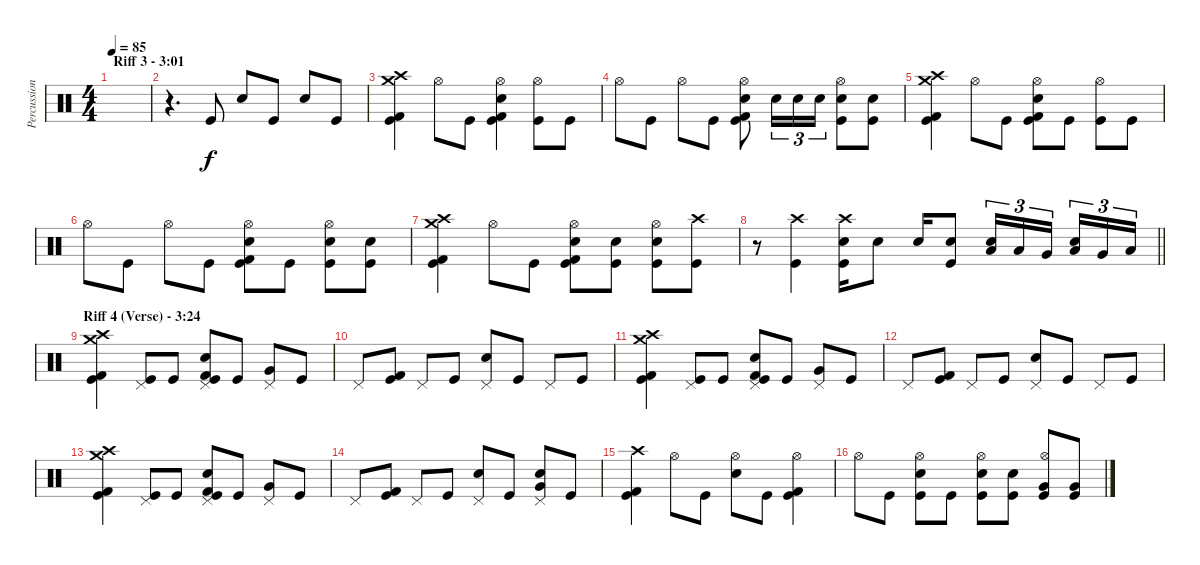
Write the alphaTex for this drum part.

\track ("Percussion" "Percussion") {instrument percussion}
\staff {score}
\articulation defaults
\ts (4 4)
\section ("" "Riff 3 - 3:01")
\tempo 85
\clef neutral
\ks c
|
r.4{d} "Kick (hit)".8 "Snare (hit) 2".8 "Kick (hit)".8 "Snare (hit) 2".8 "Kick (hit)".8 |
("Kick (hit)" "Kick (hit) 2" "Crash high (hit)" "Crash medium (hit)").4 "Hi-Hat (open)".8 "Kick (hit)".8 ("Kick (hit)" "Kick (hit) 2" "Snare (hit) 2" "Hi-Hat (open)").4 ("Kick (hit)" "Hi-Hat (open)").8 "Kick (hit)".8 |
"Hi-Hat (open)".8 "Kick (hit)".8 "Hi-Hat (open)".8 "Kick (hit)".8 ("Kick (hit)" "Kick (hit) 2" "Snare (hit) 2" "Hi-Hat (open)").8 "Snare (hit) 2".16{tu (3 2)} "Snare (hit) 2".16{tu (3 2)} "Snare (hit) 2".16{tu (3 2)} ("Kick (hit)" "Snare (hit) 2" "Hi-Hat (open)").8 ("Kick (hit)" "Snare (hit) 2").8 |
("Kick (hit)" "Kick (hit) 2" "Crash high (hit)" "Crash medium (hit)").4 "Hi-Hat (open)".8 "Kick (hit)".8 ("Kick (hit)" "Kick (hit) 2" "Snare (hit) 2" "Hi-Hat (open)").8 "Kick (hit)".8 ("Kick (hit)" "Hi-Hat (open)").8 "Kick (hit)".8 |
"Hi-Hat (open)".8 "Kick (hit)".8 "Hi-Hat (open)".8 "Kick (hit)".8 ("Kick (hit)" "Kick (hit) 2" "Snare (hit) 2" "Hi-Hat (open)").8 "Kick (hit)".8 ("Kick (hit)" "Snare (hit) 2" "Hi-Hat (open)").8 ("Kick (hit)" "Snare (hit) 2").8 |
("Kick (hit)" "Kick (hit) 2" "Crash high (hit)" "Crash medium (hit)").4 "Hi-Hat (open)".8 "Kick (hit)".8 ("Kick (hit)" "Kick (hit) 2" "Snare (hit) 2" "Hi-Hat (open)").8 ("Kick (hit)" "Snare (hit) 2").8 ("Kick (hit)" "Snare (hit) 2" "Hi-Hat (open)").8 ("Kick (hit)" "Crash high (hit)").8 |
\barLineRight lightlight
r.8 ("Kick (hit)" "Crash high (hit)").4 ("Kick (hit)" "Snare (hit) 2" "Crash high (hit)").16 "Snare (hit) 2".8 "Snare (hit) 2".16 ("Kick (hit)" "Snare (hit) 2").8 ("Low Tom (hit)" "Snare (hit) 2").16{tu (3 2)} "Low Floor Tom (hit)".16{tu (3 2)} "Very Low Tom (hit)".16{tu (3 2) beam splitsecondary} ("Low Tom (hit)" "Snare (hit) 2").16{tu (3 2)} "Very Low Tom (hit)".16{tu (3 2)} "Low Floor Tom (hit)".16{tu (3 2)} |
\section ("" "Riff 4 (Verse) - 3:24")
("Kick (hit)" "Kick (hit) 2" "Crash high (hit)" "Crash medium (hit)").4 ("Kick (hit)" "Pedal Hi-Hat (hit)").8 "Kick (hit)".8 ("Kick (hit)" "Kick (hit) 2" "Snare (hit) 2" "Pedal Hi-Hat (hit)").8 "Kick (hit)".8 ("Very Low Tom (hit)" "Pedal Hi-Hat (hit)").8 "Kick (hit)".8 |
"Pedal Hi-Hat (hit)".8 ("Kick (hit)" "Kick (hit) 2").8 "Pedal Hi-Hat (hit)".8 "Kick (hit)".8 ("Snare (hit) 2" "Pedal Hi-Hat (hit)").8 "Kick (hit)".8 "Pedal Hi-Hat (hit)".8 "Kick (hit)".8 |
("Kick (hit)" "Kick (hit) 2" "Crash high (hit)" "Crash medium (hit)").4 ("Kick (hit)" "Pedal Hi-Hat (hit)").8 "Kick (hit)".8 ("Kick (hit)" "Kick (hit) 2" "Snare (hit) 2" "Pedal Hi-Hat (hit)").8 "Kick (hit)".8 ("Very Low Tom (hit)" "Pedal Hi-Hat (hit)").8 "Kick (hit)".8 |
"Pedal Hi-Hat (hit)".8 ("Kick (hit)" "Kick (hit) 2").8 "Pedal Hi-Hat (hit)".8 "Kick (hit)".8 ("Snare (hit) 2" "Pedal Hi-Hat (hit)").8 "Kick (hit)".8 "Pedal Hi-Hat (hit)".8 "Kick (hit)".8 |
("Kick (hit)" "Kick (hit) 2" "Crash high (hit)" "Crash medium (hit)").4 ("Kick (hit)" "Pedal Hi-Hat (hit)").8 "Kick (hit)".8 ("Kick (hit)" "Kick (hit) 2" "Snare (hit) 2" "Pedal Hi-Hat (hit)").8 "Kick (hit)".8 ("Very Low Tom (hit)" "Pedal Hi-Hat (hit)").8 "Kick (hit)".8 |
"Pedal Hi-Hat (hit)".8 ("Kick (hit)" "Kick (hit) 2").8 "Pedal Hi-Hat (hit)".8 "Kick (hit)".8 ("Snare (hit) 2" "Pedal Hi-Hat (hit)").8 "Kick (hit)".8 ("Very Low Tom (hit)" "Snare (hit) 2" "Pedal Hi-Hat (hit)").8 "Kick (hit)".8 |
("Kick (hit)" "Kick (hit) 2" "Crash high (hit)").4 "Hi-Hat (open)".8 "Kick (hit)".8 ("Snare (hit) 2" "Hi-Hat (open)").8 "Kick (hit)".8 ("Kick (hit)" "Kick (hit) 2" "Hi-Hat (open)").4 |
"Hi-Hat (open)".8 "Kick (hit)".8 ("Kick (hit)" "Snare (hit) 2" "Hi-Hat (open)").8 "Kick (hit)".8 ("Kick (hit)" "Snare (hit) 2" "Hi-Hat (open)").8 ("Kick (hit)" "Snare (hit) 2").8 ("Kick (hit)" "Very Low Tom (hit)" "Hi-Hat (open)").8 ("Kick (hit)" "Very Low Tom (hit)").8
